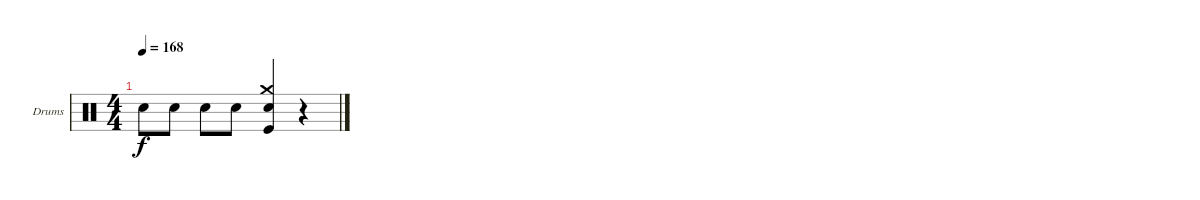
\bracketExtendMode groupsimilarinstruments
\firstSystemTrackNameOrientation horizontal
\otherSystemsTrackNameOrientation horizontal
\track ("Vinny Appice" "Drums") {instrument percussion}
\staff {score}
\articulation defaults
\ts (4 4)
\tempo 168
\clef neutral
\ks c "Snare (hit) 2".8{dy f} "Snare (hit) 2".8 "Snare (hit) 2".8 "Snare (hit) 2".8
("Crash medium (hit)" "Snare (hit) 2" "Kick (hit)").4 r.4
